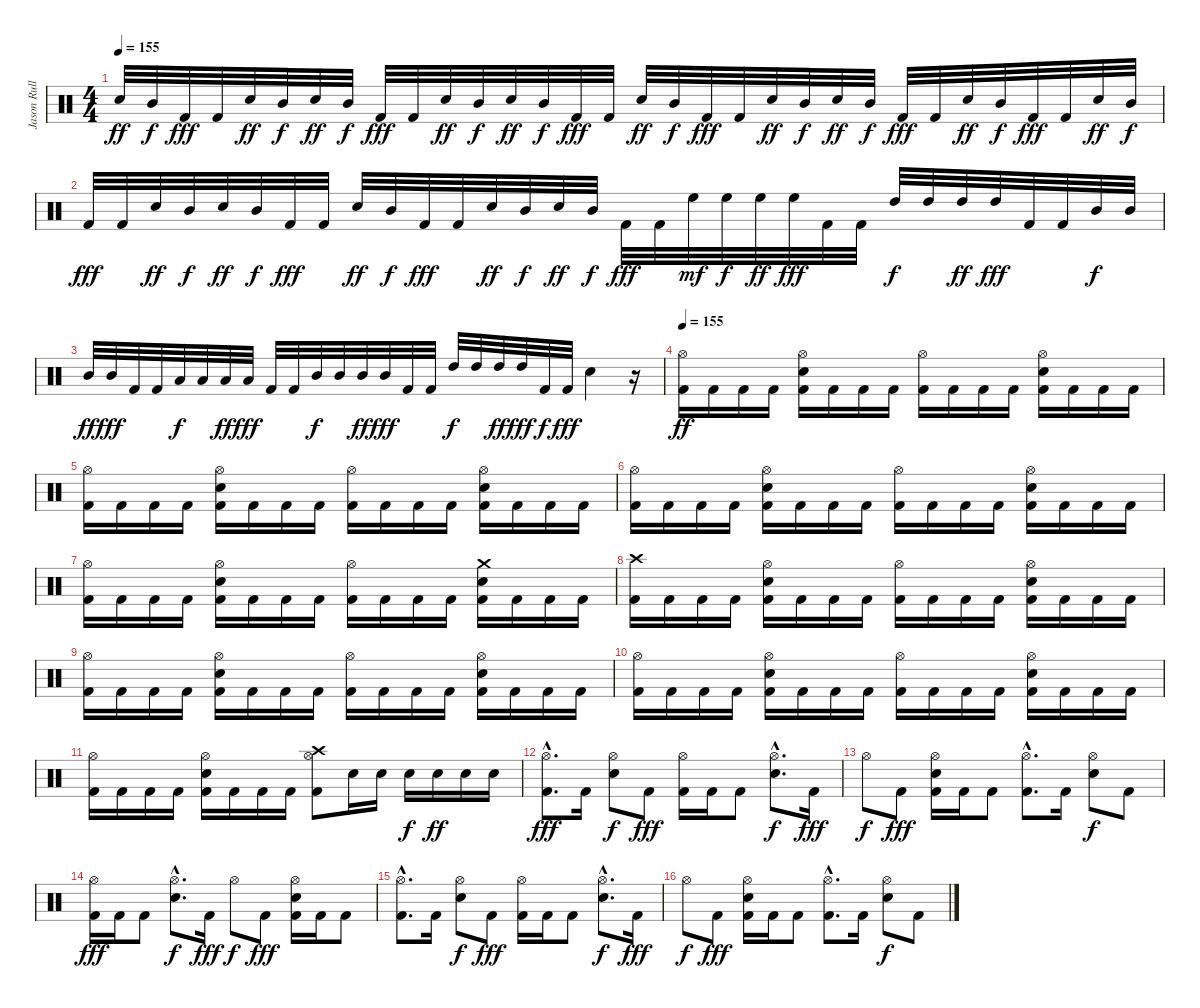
\track ("Jason Rullo" "Jason Rull") {instrument percussion}
\staff {score}
\articulation defaults
\ts (4 4)
\tempo 155
\tempo 126
\tempo 155
\clef neutral
\ks c "Electric Snare (hit)".32{dy ff} "Mid Tom (hit)".32{dy f} "Kick (hit) 2".32{dy fff} "Kick (hit) 2".32 "Electric Snare (hit)".32{dy ff} "Mid Tom (hit)".32{dy f} "Electric Snare (hit)".32{dy ff} "Mid Tom (hit)".32{dy f} "Kick (hit) 2".32{dy fff} "Kick (hit) 2".32 "Electric Snare (hit)".32{dy ff} "Mid Tom (hit)".32{dy f} "Electric Snare (hit)".32{dy ff} "Mid Tom (hit)".32{dy f} "Kick (hit) 2".32{dy fff} "Kick (hit) 2".32 "Electric Snare (hit)".32{dy ff} "Mid Tom (hit)".32{dy f} "Kick (hit) 2".32{dy fff} "Kick (hit) 2".32 "Electric Snare (hit)".32{dy ff} "Mid Tom (hit)".32{dy f} "Electric Snare (hit)".32{dy ff} "Mid Tom (hit)".32{dy f} "Kick (hit) 2".32{dy fff} "Kick (hit) 2".32 "Electric Snare (hit)".32{dy ff} "Mid Tom (hit)".32{dy f} "Kick (hit) 2".32{dy fff} "Kick (hit) 2".32 "Electric Snare (hit)".32{dy ff} "Mid Tom (hit)".32{dy f}
|
"Kick (hit) 2".32{dy fff} "Kick (hit) 2".32 "Electric Snare (hit)".32{dy ff} "Mid Tom (hit)".32{dy f} "Electric Snare (hit)".32{dy ff} "Mid Tom (hit)".32{dy f} "Kick (hit) 2".32{dy fff} "Kick (hit) 2".32 "Electric Snare (hit)".32{dy ff} "Mid Tom (hit)".32{dy f} "Kick (hit) 2".32{dy fff} "Kick (hit) 2".32 "Electric Snare (hit)".32{dy ff} "Mid Tom (hit)".32{dy f} "Electric Snare (hit)".32{dy ff} "Mid Tom (hit)".32{dy f} "Kick (hit) 2".32{dy fff} "Kick (hit) 2".32 "High Floor Tom (hit)".32{dy mf} "High Floor Tom (hit)".32{dy f} "High Floor Tom (hit)".32{dy ff} "High Floor Tom (hit)".32{dy fff} "Kick (hit) 2".32 "Kick (hit) 2".32 "High Tom (hit)".32{dy f} "High Tom (hit)".32 "High Tom (hit)".32{dy ff} "High Tom (hit)".32{dy fff} "Kick (hit) 2".32 "Kick (hit) 2".32 "Mid Tom (hit)".32{dy f} "Mid Tom (hit)".32 |
"Mid Tom (hit)".32{dy ff} "Mid Tom (hit)".32{dy fff} "Kick (hit) 2".32 "Kick (hit) 2".32 "Low Tom (hit)".32{dy f} "Low Tom (hit)".32 "Low Tom (hit)".32{dy ff} "Low Tom (hit)".32{dy fff} "Kick (hit) 2".32 "Kick (hit) 2".32 "Mid Tom (hit)".32{dy f} "Mid Tom (hit)".32 "Mid Tom (hit)".32{dy ff} "Mid Tom (hit)".32{dy fff} "Kick (hit) 2".32 "Kick (hit) 2".32 "High Tom (hit)".32{dy f} "High Tom (hit)".32 "High Tom (hit)".32{dy ff} "High Tom (hit)".32{dy fff} "Kick (hit) 2".32{dy f} "Kick (hit) 2".32{dy fff} "Electric Snare (hit)".4 r.16 |
\tempo 155
("Hi-Hat (open)" "Kick (hit) 2").16{dy ff} "Kick (hit) 2".16 "Kick (hit) 2".16 "Kick (hit) 2".16 ("Hi-Hat (open)" "Electric Snare (hit)" "Kick (hit) 2").16 "Kick (hit) 2".16 "Kick (hit) 2".16 "Kick (hit) 2".16 ("Hi-Hat (open)" "Kick (hit) 2").16 "Kick (hit) 2".16 "Kick (hit) 2".16 "Kick (hit) 2".16 ("Hi-Hat (open)" "Electric Snare (hit)" "Kick (hit) 2").16 "Kick (hit) 2".16 "Kick (hit) 2".16 "Kick (hit) 2".16 |
("Hi-Hat (open)" "Kick (hit) 2").16 "Kick (hit) 2".16 "Kick (hit) 2".16 "Kick (hit) 2".16 ("Hi-Hat (open)" "Electric Snare (hit)" "Kick (hit) 2").16 "Kick (hit) 2".16 "Kick (hit) 2".16 "Kick (hit) 2".16 ("Hi-Hat (open)" "Kick (hit) 2").16 "Kick (hit) 2".16 "Kick (hit) 2".16 "Kick (hit) 2".16 ("Hi-Hat (open)" "Electric Snare (hit)" "Kick (hit) 2").16 "Kick (hit) 2".16 "Kick (hit) 2".16 "Kick (hit) 2".16 |
("Hi-Hat (open)" "Kick (hit) 2").16 "Kick (hit) 2".16 "Kick (hit) 2".16 "Kick (hit) 2".16 ("Hi-Hat (open)" "Electric Snare (hit)" "Kick (hit) 2").16 "Kick (hit) 2".16 "Kick (hit) 2".16 "Kick (hit) 2".16 ("Hi-Hat (open)" "Kick (hit) 2").16 "Kick (hit) 2".16 "Kick (hit) 2".16 "Kick (hit) 2".16 ("Hi-Hat (open)" "Electric Snare (hit)" "Kick (hit) 2").16 "Kick (hit) 2".16 "Kick (hit) 2".16 "Kick (hit) 2".16 |
("Hi-Hat (open)" "Kick (hit) 2").16 "Kick (hit) 2".16 "Kick (hit) 2".16 "Kick (hit) 2".16 ("Hi-Hat (open)" "Electric Snare (hit)" "Kick (hit) 2").16 "Kick (hit) 2".16 "Kick (hit) 2".16 "Kick (hit) 2".16 ("Hi-Hat (open)" "Kick (hit) 2").16 "Kick (hit) 2".16 "Kick (hit) 2".16 "Kick (hit) 2".16 ("Crash medium (hit)" "Electric Snare (hit)" "Kick (hit) 2").16 "Kick (hit) 2".16 "Kick (hit) 2".16 "Kick (hit) 2".16 |
("Crash high (hit)" "Kick (hit) 2").16 "Kick (hit) 2".16 "Kick (hit) 2".16 "Kick (hit) 2".16 ("Hi-Hat (open)" "Electric Snare (hit)" "Kick (hit) 2").16 "Kick (hit) 2".16 "Kick (hit) 2".16 "Kick (hit) 2".16 ("Hi-Hat (open)" "Kick (hit) 2").16 "Kick (hit) 2".16 "Kick (hit) 2".16 "Kick (hit) 2".16 ("Hi-Hat (open)" "Electric Snare (hit)" "Kick (hit) 2").16 "Kick (hit) 2".16 "Kick (hit) 2".16 "Kick (hit) 2".16 |
("Hi-Hat (open)" "Kick (hit) 2").16 "Kick (hit) 2".16 "Kick (hit) 2".16 "Kick (hit) 2".16 ("Hi-Hat (open)" "Electric Snare (hit)" "Kick (hit) 2").16 "Kick (hit) 2".16 "Kick (hit) 2".16 "Kick (hit) 2".16 ("Hi-Hat (open)" "Kick (hit) 2").16 "Kick (hit) 2".16 "Kick (hit) 2".16 "Kick (hit) 2".16 ("Hi-Hat (open)" "Electric Snare (hit)" "Kick (hit) 2").16 "Kick (hit) 2".16 "Kick (hit) 2".16 "Kick (hit) 2".16 |
("Hi-Hat (open)" "Kick (hit) 2").16 "Kick (hit) 2".16 "Kick (hit) 2".16 "Kick (hit) 2".16 ("Hi-Hat (open)" "Electric Snare (hit)" "Kick (hit) 2").16 "Kick (hit) 2".16 "Kick (hit) 2".16 "Kick (hit) 2".16 ("Hi-Hat (open)" "Kick (hit) 2").16 "Kick (hit) 2".16 "Kick (hit) 2".16 "Kick (hit) 2".16 ("Hi-Hat (open)" "Electric Snare (hit)" "Kick (hit) 2").16 "Kick (hit) 2".16 "Kick (hit) 2".16 "Kick (hit) 2".16 |
("Hi-Hat (open)" "Kick (hit) 2").16 "Kick (hit) 2".16 "Kick (hit) 2".16 "Kick (hit) 2".16 ("Hi-Hat (open)" "Electric Snare (hit)" "Kick (hit) 2").16 "Kick (hit) 2".16 "Kick (hit) 2".16 "Kick (hit) 2".16 ("Crash high (hit)" "Hi-Hat (open)" "Kick (hit) 2").8 "Electric Snare (hit)".16 "Electric Snare (hit)".16 "Electric Snare (hit)".16{dy f} "Electric Snare (hit)".16{dy ff} "Electric Snare (hit)".16 "Electric Snare (hit)".16 |
("Hi-Hat (open)"{hac} "Kick (hit) 2"{hac}).8{d dy fff} "Kick (hit) 2".16 ("Hi-Hat (open)" "Electric Snare (hit)").8{dy f} "Kick (hit) 2".8{dy fff} ("Hi-Hat (open)" "Kick (hit) 2").16 "Kick (hit) 2".16 "Kick (hit) 2".8 ("Hi-Hat (open)"{hac} "Electric Snare (hit)"{hac}).8{d dy f} "Kick (hit) 2".16{dy fff} |
"Hi-Hat (open)".8{dy f} "Kick (hit) 2".8{dy fff} ("Hi-Hat (open)" "Electric Snare (hit)" "Kick (hit) 2").16 "Kick (hit) 2".16 "Kick (hit) 2".8 ("Hi-Hat (open)"{hac} "Kick (hit) 2"{hac}).8{d} "Kick (hit) 2".16 ("Hi-Hat (open)" "Electric Snare (hit)").8{dy f} "Kick (hit) 2".8 |
("Hi-Hat (open)" "Kick (hit) 2").16{dy fff} "Kick (hit) 2".16 "Kick (hit) 2".8 ("Hi-Hat (open)"{hac} "Electric Snare (hit)"{hac}).8{d dy f} "Kick (hit) 2".16{dy fff} "Hi-Hat (open)".8{dy f} "Kick (hit) 2".8{dy fff} ("Hi-Hat (open)" "Electric Snare (hit)" "Kick (hit) 2").16 "Kick (hit) 2".16 "Kick (hit) 2".8 |
("Hi-Hat (open)"{hac} "Kick (hit) 2"{hac}).8{d} "Kick (hit) 2".16 ("Hi-Hat (open)" "Electric Snare (hit)").8{dy f} "Kick (hit) 2".8{dy fff} ("Hi-Hat (open)" "Kick (hit) 2").16 "Kick (hit) 2".16 "Kick (hit) 2".8 ("Hi-Hat (open)"{hac} "Electric Snare (hit)"{hac}).8{d dy f} "Kick (hit) 2".16{dy fff} |
"Hi-Hat (open)".8{dy f} "Kick (hit) 2".8{dy fff} ("Hi-Hat (open)" "Electric Snare (hit)" "Kick (hit) 2").16 "Kick (hit) 2".16 "Kick (hit) 2".8 ("Hi-Hat (open)"{hac} "Kick (hit) 2"{hac}).8{d} "Kick (hit) 2".16 ("Hi-Hat (open)" "Electric Snare (hit)").8{dy f} "Kick (hit) 2".8
